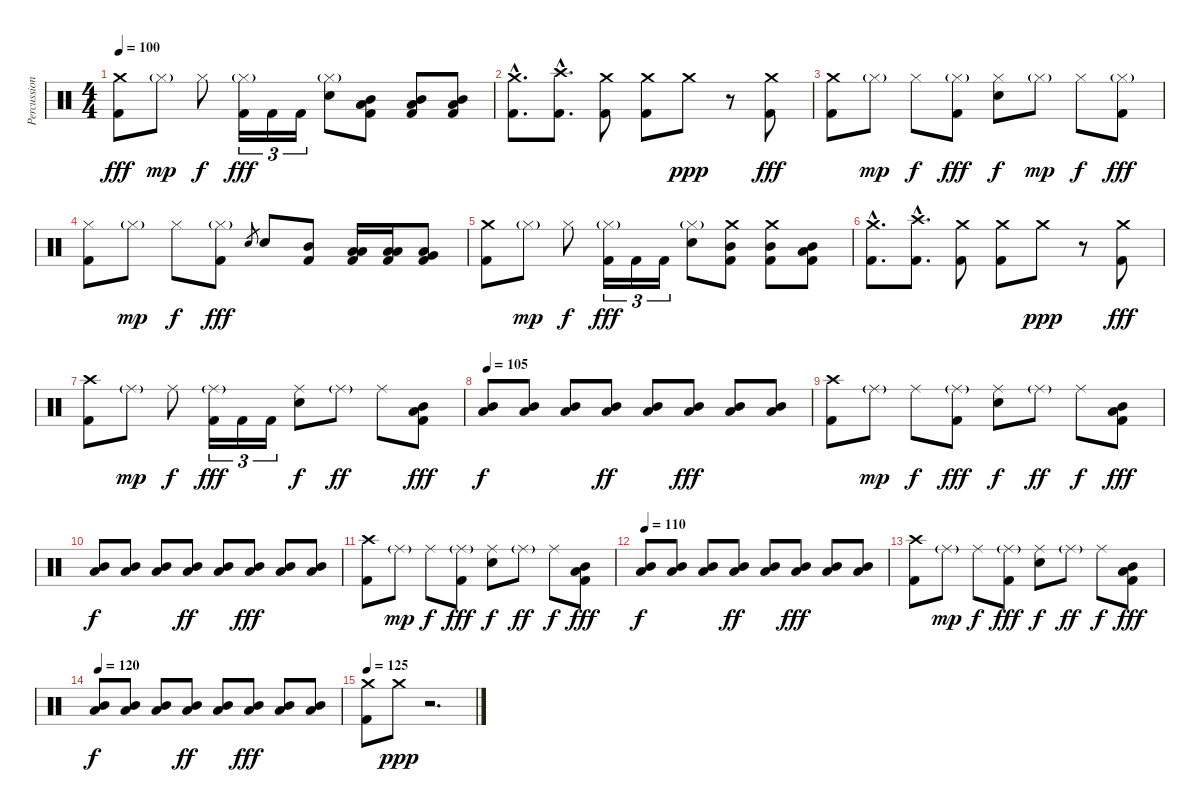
\track ("Percussion" "Percussion") {instrument percussion}
\staff {score}
\articulation defaults
\ts (4 4)
\tempo 100
\clef neutral
\ks c
("Crash medium (hit)" "Kick (hit) 2").8{dy fff} "Hi-Hat (closed)"{g}.8{dy mp} "Hi-Hat (closed)".8{dy f} ("Hi-Hat (closed)"{g} "Kick (hit) 2").16{tu (3 2) dy fff} "Kick (hit) 2".16{tu (3 2)} "Kick (hit) 2".16{tu (3 2)} ("Hi-Hat (closed)"{g} "Electric Snare (hit)").8 ("Mid Tom (hit)" "Low Tom (hit)" "Kick (hit) 2").8 ("Mid Tom (hit)" "Low Tom (hit)" "Kick (hit) 2").8 ("Mid Tom (hit)" "Low Tom (hit)" "Kick (hit) 2").8 |
("Crash medium (hit)"{hac} "Kick (hit) 2"{hac}).8{d} ("Crash high (hit)"{hac} "Kick (hit) 2"{hac}).8{d} ("Crash medium (hit)" "Kick (hit) 2").8 ("Crash medium (hit)" "Kick (hit) 2").8 "Crash medium (hit)".8{dy ppp} r.8 ("Crash medium (hit)" "Kick (hit) 2").8{dy fff} |
("Crash medium (hit)" "Kick (hit) 2").8 "Hi-Hat (closed)"{g}.8{dy mp} "Hi-Hat (closed)".8{dy f} ("Hi-Hat (closed)"{g} "Kick (hit) 2").8{dy fff} ("Hi-Hat (closed)" "Electric Snare (hit)").8{dy f} "Hi-Hat (closed)"{g}.8{dy mp} "Hi-Hat (closed)".8{dy f} ("Hi-Hat (closed)"{g} "Kick (hit) 2").8{dy fff} |
("Hi-Hat (closed)" "Kick (hit) 2").8 "Hi-Hat (closed)"{g}.8{dy mp} "Hi-Hat (closed)".8{dy f} ("Hi-Hat (closed)"{g} "Kick (hit) 2").8{dy fff} "Electric Snare (hit)".8{gr} "Electric Snare (hit)".8 ("Mid Tom (hit)" "Kick (hit) 2").8 ("Low Tom (hit)" "Low Floor Tom (hit)" "Kick (hit) 2").16 ("Low Tom (hit)" "Low Floor Tom (hit)" "Kick (hit) 2").16 ("Very Low Tom (hit)" "Low Floor Tom (hit)" "Kick (hit) 2").8 |
("Crash medium (hit)" "Kick (hit) 2").8 "Hi-Hat (closed)"{g}.8{dy mp} "Hi-Hat (closed)".8{dy f} ("Hi-Hat (closed)"{g} "Kick (hit) 2").16{tu (3 2) dy fff} "Kick (hit) 2".16{tu (3 2)} "Kick (hit) 2".16{tu (3 2)} ("Hi-Hat (closed)"{g} "Electric Snare (hit)").8 ("Crash medium (hit)" "Mid Tom (hit)" "Kick (hit) 2").8 ("Crash medium (hit)" "Mid Tom (hit)" "Kick (hit) 2").8 ("Mid Tom (hit)" "Low Tom (hit)" "Kick (hit) 2").8 |
("Crash medium (hit)"{hac} "Kick (hit) 2"{hac}).8{d} ("Crash high (hit)"{hac} "Kick (hit) 2"{hac}).8{d} ("Crash medium (hit)" "Kick (hit) 2").8 ("Crash medium (hit)" "Kick (hit) 2").8 "Crash medium (hit)".8{dy ppp} r.8 ("Crash medium (hit)" "Kick (hit) 2").8{dy fff} |
("Crash high (hit)" "Kick (hit) 2").8 "Ride (middle)"{g}.8{dy mp} "Ride (middle)".8{dy f} ("Ride (middle)"{g} "Kick (hit) 2").16{tu (3 2) dy fff} "Kick (hit) 2".16{tu (3 2)} "Kick (hit) 2".16{tu (3 2)} ("Ride (middle)" "Electric Snare (hit)").8{dy f} "Ride (middle)"{g}.8{dy ff} "Ride (middle)".8 ("Mid Tom (hit)" "Low Tom (hit)" "Kick (hit) 2").8{dy fff} |
\tempo 105
("Mid Tom (hit)" "Low Tom (hit)").8{dy f} ("Mid Tom (hit)" "Low Tom (hit)").8 ("Mid Tom (hit)" "Low Tom (hit)").8 ("Mid Tom (hit)" "Low Tom (hit)").8{dy ff} ("Mid Tom (hit)" "Low Tom (hit)").8 ("Mid Tom (hit)" "Low Tom (hit)").8{dy fff} ("Mid Tom (hit)" "Low Tom (hit)").8 ("Mid Tom (hit)" "Low Tom (hit)").8 |
("Crash high (hit)" "Kick (hit) 2").8 "Ride (middle)"{g}.8{dy mp} "Ride (middle)".8{dy f} ("Ride (middle)"{g} "Kick (hit) 2").8{dy fff} ("Ride (middle)" "Electric Snare (hit)").8{dy f} "Ride (middle)"{g}.8{dy ff} "Ride (middle)".8{dy f} ("Mid Tom (hit)" "Low Tom (hit)" "Kick (hit) 2").8{dy fff} |
("Mid Tom (hit)" "Low Tom (hit)").8{dy f} ("Mid Tom (hit)" "Low Tom (hit)").8 ("Mid Tom (hit)" "Low Tom (hit)").8 ("Mid Tom (hit)" "Low Tom (hit)").8{dy ff} ("Mid Tom (hit)" "Low Tom (hit)").8 ("Mid Tom (hit)" "Low Tom (hit)").8{dy fff} ("Mid Tom (hit)" "Low Tom (hit)").8 ("Mid Tom (hit)" "Low Tom (hit)").8 |
("Crash high (hit)" "Kick (hit) 2").8 "Ride (middle)"{g}.8{dy mp} "Ride (middle)".8{dy f} ("Ride (middle)"{g} "Kick (hit) 2").8{dy fff} ("Ride (middle)" "Electric Snare (hit)").8{dy f} "Ride (middle)"{g}.8{dy ff} "Ride (middle)".8{dy f} ("Mid Tom (hit)" "Low Tom (hit)" "Kick (hit) 2").8{dy fff} |
\tempo 110
("Mid Tom (hit)" "Low Tom (hit)").8{dy f} ("Mid Tom (hit)" "Low Tom (hit)").8 ("Mid Tom (hit)" "Low Tom (hit)").8 ("Mid Tom (hit)" "Low Tom (hit)").8{dy ff} ("Mid Tom (hit)" "Low Tom (hit)").8 ("Mid Tom (hit)" "Low Tom (hit)").8{dy fff} ("Mid Tom (hit)" "Low Tom (hit)").8 ("Mid Tom (hit)" "Low Tom (hit)").8 |
("Crash high (hit)" "Kick (hit) 2").8 "Ride (middle)"{g}.8{dy mp} "Ride (middle)".8{dy f} ("Ride (middle)"{g} "Kick (hit) 2").8{dy fff} ("Ride (middle)" "Electric Snare (hit)").8{dy f} "Ride (middle)"{g}.8{dy ff} "Ride (middle)".8{dy f} ("Mid Tom (hit)" "Low Tom (hit)" "Kick (hit) 2").8{dy fff} |
\tempo 120
("Mid Tom (hit)" "Low Tom (hit)").8{dy f} ("Mid Tom (hit)" "Low Tom (hit)").8 ("Mid Tom (hit)" "Low Tom (hit)").8 ("Mid Tom (hit)" "Low Tom (hit)").8{dy ff} ("Mid Tom (hit)" "Low Tom (hit)").8 ("Mid Tom (hit)" "Low Tom (hit)").8{dy fff} ("Mid Tom (hit)" "Low Tom (hit)").8 ("Mid Tom (hit)" "Low Tom (hit)").8 |
\tempo 125
("Crash medium (hit)" "Kick (hit) 2").8 "Crash medium (hit)".8{dy ppp} r.2{d}
